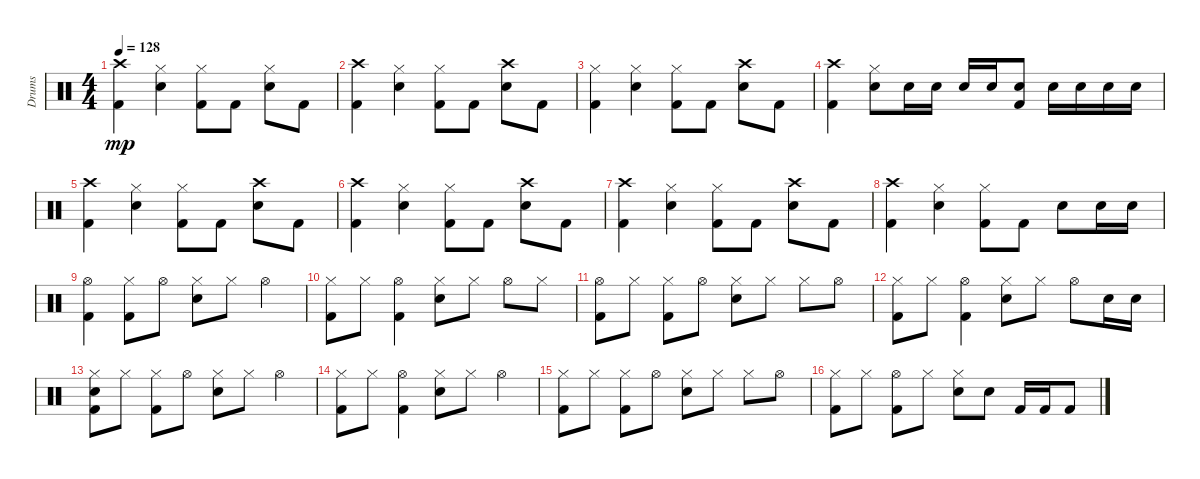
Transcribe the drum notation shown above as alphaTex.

\track ("Drums" "Drums") {instrument percussion}
\staff {score}
\articulation defaults
\ts (4 4)
\tempo 128
\clef neutral
\ks c
("Kick (hit) 2" "Crash high (hit)").4{dy mp} ("Electric Snare (hit)" "Hi-Hat (closed)").4 ("Kick (hit) 2" "Hi-Hat (closed)").8 "Kick (hit) 2".8 ("Electric Snare (hit)" "Hi-Hat (closed)").8 "Kick (hit) 2".8 |
("Kick (hit) 2" "Crash high (hit)").4 ("Electric Snare (hit)" "Hi-Hat (closed)").4 ("Kick (hit) 2" "Hi-Hat (closed)").8 "Kick (hit) 2".8 ("Electric Snare (hit)" "Crash high (hit)").8 "Kick (hit) 2".8 |
("Kick (hit) 2" "Hi-Hat (closed)").4 ("Electric Snare (hit)" "Hi-Hat (closed)").4 ("Kick (hit) 2" "Hi-Hat (closed)").8 "Kick (hit) 2".8 ("Electric Snare (hit)" "Crash high (hit)").8 "Kick (hit) 2".8 |
("Kick (hit) 2" "Crash high (hit)").4 ("Electric Snare (hit)" "Hi-Hat (closed)").8 "Electric Snare (hit)".16 "Electric Snare (hit)".16 "Electric Snare (hit)".16 "Electric Snare (hit)".16 ("Kick (hit) 2" "Electric Snare (hit)").8 "Electric Snare (hit)".16 "Electric Snare (hit)".16 "Electric Snare (hit)".16 "Electric Snare (hit)".16 |
("Kick (hit) 2" "Crash high (hit)").4 ("Electric Snare (hit)" "Hi-Hat (closed)").4 ("Kick (hit) 2" "Hi-Hat (closed)").8 "Kick (hit) 2".8 ("Electric Snare (hit)" "Crash high (hit)").8 "Kick (hit) 2".8 |
("Kick (hit) 2" "Crash high (hit)").4 ("Electric Snare (hit)" "Hi-Hat (closed)").4 ("Kick (hit) 2" "Hi-Hat (closed)").8 "Kick (hit) 2".8 ("Electric Snare (hit)" "Crash high (hit)").8 "Kick (hit) 2".8 |
("Kick (hit) 2" "Crash high (hit)").4 ("Electric Snare (hit)" "Hi-Hat (closed)").4 ("Kick (hit) 2" "Hi-Hat (closed)").8 "Kick (hit) 2".8 ("Electric Snare (hit)" "Crash high (hit)").8 "Kick (hit) 2".8 |
("Kick (hit) 2" "Crash high (hit)").4 ("Electric Snare (hit)" "Hi-Hat (closed)").4 ("Kick (hit) 2" "Hi-Hat (closed)").8 "Kick (hit) 2".8 "Electric Snare (hit)".8 "Electric Snare (hit)".16 "Electric Snare (hit)".16 |
("Kick (hit) 2" "Hi-Hat (open)").4 ("Kick (hit) 2" "Hi-Hat (closed)").8 "Hi-Hat (open)".8 ("Electric Snare (hit)" "Hi-Hat (closed)").8 "Hi-Hat (closed)".8 "Hi-Hat (open)".4 |
("Kick (hit) 2" "Hi-Hat (closed)").8 "Hi-Hat (closed)".8 ("Kick (hit) 2" "Hi-Hat (open)").4 ("Electric Snare (hit)" "Hi-Hat (closed)").8 "Hi-Hat (closed)".8 "Hi-Hat (open)".8 "Hi-Hat (closed)".8 |
("Kick (hit) 2" "Hi-Hat (open)").8 "Hi-Hat (closed)".8 ("Kick (hit) 2" "Hi-Hat (closed)").8 "Hi-Hat (open)".8 ("Electric Snare (hit)" "Hi-Hat (closed)").8 "Hi-Hat (closed)".8 "Hi-Hat (closed)".8 "Hi-Hat (open)".8 |
("Kick (hit) 2" "Hi-Hat (closed)").8 "Hi-Hat (closed)".8 ("Kick (hit) 2" "Hi-Hat (open)").4 ("Electric Snare (hit)" "Hi-Hat (closed)").8 "Hi-Hat (closed)".8 "Hi-Hat (open)".8 "Electric Snare (hit)".16 "Electric Snare (hit)".16 |
("Kick (hit) 2" "Electric Snare (hit)" "Hi-Hat (closed)").8 "Hi-Hat (closed)".8 ("Kick (hit) 2" "Hi-Hat (closed)").8 "Hi-Hat (open)".8 ("Electric Snare (hit)" "Hi-Hat (closed)").8 "Hi-Hat (closed)".8 "Hi-Hat (open)".4 |
("Kick (hit) 2" "Hi-Hat (closed)").8 "Hi-Hat (closed)".8 ("Kick (hit) 2" "Hi-Hat (open)").4 ("Electric Snare (hit)" "Hi-Hat (closed)").8 "Hi-Hat (closed)".8 "Hi-Hat (open)".4 |
("Kick (hit) 2" "Hi-Hat (closed)").8 "Hi-Hat (closed)".8 ("Kick (hit) 2" "Hi-Hat (closed)").8 "Hi-Hat (open)".8 ("Electric Snare (hit)" "Hi-Hat (closed)").8 "Hi-Hat (closed)".8 "Hi-Hat (closed)".8 "Hi-Hat (open)".8 |
("Kick (hit) 2" "Hi-Hat (closed)").8 "Hi-Hat (closed)".8 ("Kick (hit) 2" "Hi-Hat (open)").8 "Hi-Hat (closed)".8 ("Electric Snare (hit)" "Hi-Hat (closed)").8 "Electric Snare (hit)".8 "Kick (hit) 2".16 "Kick (hit) 2".16 "Kick (hit) 2".8
